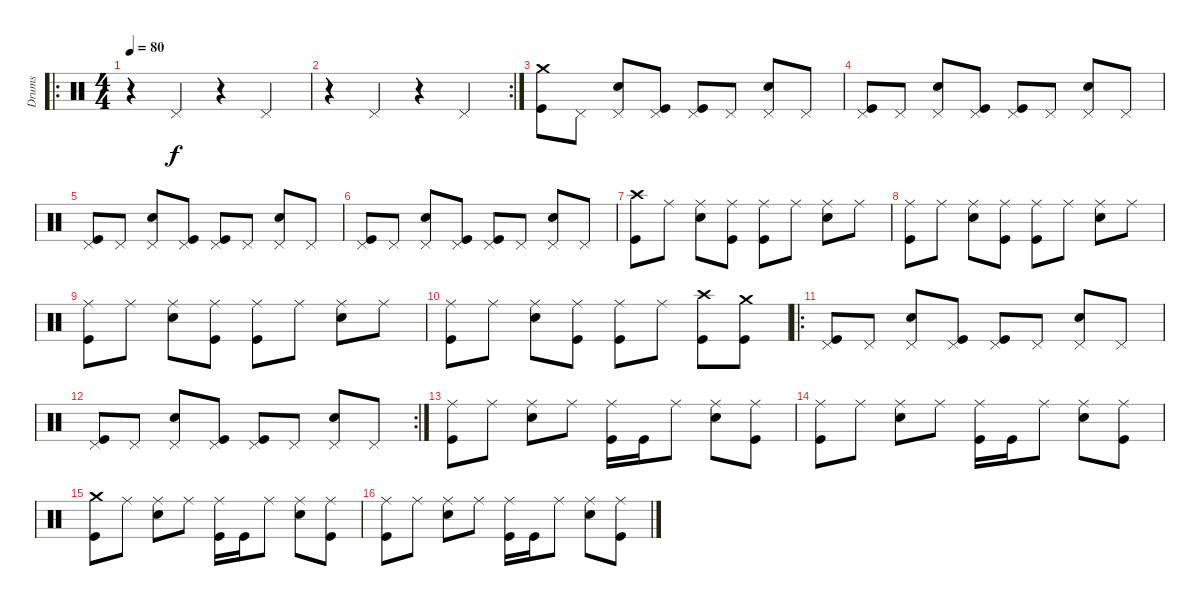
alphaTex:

\track ("Drums" "Drums") {instrument percussion}
\staff {score}
\articulation defaults
\ro
\ts (4 4)
\tempo 80
\clef neutral
\ks c
r.4{dy f} "Pedal Hi-Hat (hit)".4 r.4 "Pedal Hi-Hat (hit)".4 |
\rc 2
r.4 "Pedal Hi-Hat (hit)".4 r.4 "Pedal Hi-Hat (hit)".4 |
("Crash medium (hit)" "Kick (hit)").8 "Pedal Hi-Hat (hit)".8 ("Pedal Hi-Hat (hit)" "Snare (hit) 2").8 ("Pedal Hi-Hat (hit)" "Kick (hit)").8 ("Pedal Hi-Hat (hit)" "Kick (hit)").8 "Pedal Hi-Hat (hit)".8 ("Pedal Hi-Hat (hit)" "Snare (hit) 2").8 "Pedal Hi-Hat (hit)".8 |
("Pedal Hi-Hat (hit)" "Kick (hit)").8 "Pedal Hi-Hat (hit)".8 ("Pedal Hi-Hat (hit)" "Snare (hit) 2").8 ("Pedal Hi-Hat (hit)" "Kick (hit)").8 ("Pedal Hi-Hat (hit)" "Kick (hit)").8 "Pedal Hi-Hat (hit)".8 ("Pedal Hi-Hat (hit)" "Snare (hit) 2").8 "Pedal Hi-Hat (hit)".8 |
("Pedal Hi-Hat (hit)" "Kick (hit)").8 "Pedal Hi-Hat (hit)".8 ("Pedal Hi-Hat (hit)" "Snare (hit) 2").8 ("Pedal Hi-Hat (hit)" "Kick (hit)").8 ("Pedal Hi-Hat (hit)" "Kick (hit)").8 "Pedal Hi-Hat (hit)".8 ("Pedal Hi-Hat (hit)" "Snare (hit) 2").8 "Pedal Hi-Hat (hit)".8 |
("Pedal Hi-Hat (hit)" "Kick (hit)").8 "Pedal Hi-Hat (hit)".8 ("Pedal Hi-Hat (hit)" "Snare (hit) 2").8 ("Pedal Hi-Hat (hit)" "Kick (hit)").8 ("Pedal Hi-Hat (hit)" "Kick (hit)").8 "Pedal Hi-Hat (hit)".8 ("Pedal Hi-Hat (hit)" "Snare (hit) 2").8 "Pedal Hi-Hat (hit)".8 |
("Crash high (hit)" "Kick (hit)").8 "Ride (middle)".8 ("Ride (middle)" "Snare (hit) 2").8 ("Ride (middle)" "Kick (hit)").8 ("Ride (middle)" "Kick (hit)").8 "Ride (middle)".8 ("Ride (middle)" "Snare (hit) 2").8 "Ride (middle)".8 |
("Ride (middle)" "Kick (hit)").8 "Ride (middle)".8 ("Ride (middle)" "Snare (hit) 2").8 ("Ride (middle)" "Kick (hit)").8 ("Ride (middle)" "Kick (hit)").8 "Ride (middle)".8 ("Ride (middle)" "Snare (hit) 2").8 "Ride (middle)".8 |
("Ride (middle)" "Kick (hit)").8 "Ride (middle)".8 ("Ride (middle)" "Snare (hit) 2").8 ("Ride (middle)" "Kick (hit)").8 ("Ride (middle)" "Kick (hit)").8 "Ride (middle)".8 ("Ride (middle)" "Snare (hit) 2").8 "Ride (middle)".8 |
("Ride (middle)" "Kick (hit)").8 "Ride (middle)".8 ("Ride (middle)" "Snare (hit) 2").8 ("Ride (middle)" "Kick (hit)").8 ("Ride (middle)" "Kick (hit)").8 "Ride (middle)".8 ("Crash high (hit)" "Kick (hit)").8 ("Crash medium (hit)" "Kick (hit)").8 |
\ro
("Pedal Hi-Hat (hit)" "Kick (hit)").8 "Pedal Hi-Hat (hit)".8 ("Pedal Hi-Hat (hit)" "Snare (hit) 2").8 ("Pedal Hi-Hat (hit)" "Kick (hit)").8 ("Pedal Hi-Hat (hit)" "Kick (hit)").8 "Pedal Hi-Hat (hit)".8 ("Pedal Hi-Hat (hit)" "Snare (hit) 2").8 "Pedal Hi-Hat (hit)".8 |
\rc 2
("Pedal Hi-Hat (hit)" "Kick (hit)").8 "Pedal Hi-Hat (hit)".8 ("Pedal Hi-Hat (hit)" "Snare (hit) 2").8 ("Pedal Hi-Hat (hit)" "Kick (hit)").8 ("Pedal Hi-Hat (hit)" "Kick (hit)").8 "Pedal Hi-Hat (hit)".8 ("Pedal Hi-Hat (hit)" "Snare (hit) 2").8 "Pedal Hi-Hat (hit)".8 |
("Ride (middle)" "Kick (hit)").8 "Ride (middle)".8 ("Ride (middle)" "Snare (hit) 2").8 "Ride (middle)".8 ("Ride (middle)" "Kick (hit)").16 "Kick (hit)".16 "Ride (middle)".8 ("Ride (middle)" "Snare (hit) 2").8 ("Ride (middle)" "Kick (hit)").8 |
("Ride (middle)" "Kick (hit)").8 "Ride (middle)".8 ("Ride (middle)" "Snare (hit) 2").8 "Ride (middle)".8 ("Ride (middle)" "Kick (hit)").16 "Kick (hit)".16 "Ride (middle)".8 ("Ride (middle)" "Snare (hit) 2").8 ("Ride (middle)" "Kick (hit)").8 |
("Crash medium (hit)" "Kick (hit)").8 "Ride (middle)".8 ("Ride (middle)" "Snare (hit) 2").8 "Ride (middle)".8 ("Ride (middle)" "Kick (hit)").16 "Kick (hit)".16 "Ride (middle)".8 ("Ride (middle)" "Snare (hit) 2").8 ("Ride (middle)" "Kick (hit)").8 |
("Ride (middle)" "Kick (hit)").8 "Ride (middle)".8 ("Ride (middle)" "Snare (hit) 2").8 "Ride (middle)".8 ("Ride (middle)" "Kick (hit)").16 "Kick (hit)".16 "Ride (middle)".8 ("Ride (middle)" "Snare (hit) 2").8 ("Ride (middle)" "Kick (hit)").8
